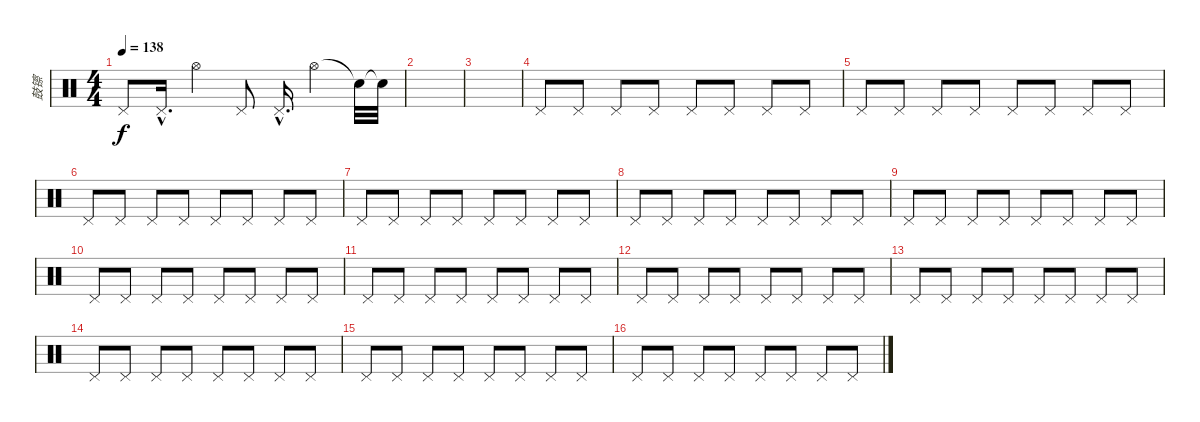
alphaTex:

\track ("鼓镲" "鼓镲") {instrument percussion}
\staff {score}
\articulation defaults
\ts (4 4)
\tempo 138
\clef neutral
\ks c "Pedal Hi-Hat (hit)".8{dy f} "Pedal Hi-Hat (hit)"{hac}.16{d} "Hi-Hat (open)".4 "Pedal Hi-Hat (hit)".8 "Pedal Hi-Hat (hit)"{hac}.16{d} "Hi-Hat (open)".4 "Snare (hit)"{t}.32 "Snare (hit)"{t}.32
|
|
|
"Pedal Hi-Hat (hit)".8 "Pedal Hi-Hat (hit)".8 "Pedal Hi-Hat (hit)".8 "Pedal Hi-Hat (hit)".8 "Pedal Hi-Hat (hit)".8 "Pedal Hi-Hat (hit)".8 "Pedal Hi-Hat (hit)".8 "Pedal Hi-Hat (hit)".8 |
"Pedal Hi-Hat (hit)".8 "Pedal Hi-Hat (hit)".8 "Pedal Hi-Hat (hit)".8 "Pedal Hi-Hat (hit)".8 "Pedal Hi-Hat (hit)".8 "Pedal Hi-Hat (hit)".8 "Pedal Hi-Hat (hit)".8 "Pedal Hi-Hat (hit)".8 |
"Pedal Hi-Hat (hit)".8 "Pedal Hi-Hat (hit)".8 "Pedal Hi-Hat (hit)".8 "Pedal Hi-Hat (hit)".8 "Pedal Hi-Hat (hit)".8 "Pedal Hi-Hat (hit)".8 "Pedal Hi-Hat (hit)".8 "Pedal Hi-Hat (hit)".8 |
"Pedal Hi-Hat (hit)".8 "Pedal Hi-Hat (hit)".8 "Pedal Hi-Hat (hit)".8 "Pedal Hi-Hat (hit)".8 "Pedal Hi-Hat (hit)".8 "Pedal Hi-Hat (hit)".8 "Pedal Hi-Hat (hit)".8 "Pedal Hi-Hat (hit)".8 |
"Pedal Hi-Hat (hit)".8 "Pedal Hi-Hat (hit)".8 "Pedal Hi-Hat (hit)".8 "Pedal Hi-Hat (hit)".8 "Pedal Hi-Hat (hit)".8 "Pedal Hi-Hat (hit)".8 "Pedal Hi-Hat (hit)".8 "Pedal Hi-Hat (hit)".8 |
"Pedal Hi-Hat (hit)".8 "Pedal Hi-Hat (hit)".8 "Pedal Hi-Hat (hit)".8 "Pedal Hi-Hat (hit)".8 "Pedal Hi-Hat (hit)".8 "Pedal Hi-Hat (hit)".8 "Pedal Hi-Hat (hit)".8 "Pedal Hi-Hat (hit)".8 |
"Pedal Hi-Hat (hit)".8 "Pedal Hi-Hat (hit)".8 "Pedal Hi-Hat (hit)".8 "Pedal Hi-Hat (hit)".8 "Pedal Hi-Hat (hit)".8 "Pedal Hi-Hat (hit)".8 "Pedal Hi-Hat (hit)".8 "Pedal Hi-Hat (hit)".8 |
"Pedal Hi-Hat (hit)".8 "Pedal Hi-Hat (hit)".8 "Pedal Hi-Hat (hit)".8 "Pedal Hi-Hat (hit)".8 "Pedal Hi-Hat (hit)".8 "Pedal Hi-Hat (hit)".8 "Pedal Hi-Hat (hit)".8 "Pedal Hi-Hat (hit)".8 |
"Pedal Hi-Hat (hit)".8 "Pedal Hi-Hat (hit)".8 "Pedal Hi-Hat (hit)".8 "Pedal Hi-Hat (hit)".8 "Pedal Hi-Hat (hit)".8 "Pedal Hi-Hat (hit)".8 "Pedal Hi-Hat (hit)".8 "Pedal Hi-Hat (hit)".8 |
"Pedal Hi-Hat (hit)".8 "Pedal Hi-Hat (hit)".8 "Pedal Hi-Hat (hit)".8 "Pedal Hi-Hat (hit)".8 "Pedal Hi-Hat (hit)".8 "Pedal Hi-Hat (hit)".8 "Pedal Hi-Hat (hit)".8 "Pedal Hi-Hat (hit)".8 |
"Pedal Hi-Hat (hit)".8 "Pedal Hi-Hat (hit)".8 "Pedal Hi-Hat (hit)".8 "Pedal Hi-Hat (hit)".8 "Pedal Hi-Hat (hit)".8 "Pedal Hi-Hat (hit)".8 "Pedal Hi-Hat (hit)".8 "Pedal Hi-Hat (hit)".8 |
"Pedal Hi-Hat (hit)".8 "Pedal Hi-Hat (hit)".8 "Pedal Hi-Hat (hit)".8 "Pedal Hi-Hat (hit)".8 "Pedal Hi-Hat (hit)".8 "Pedal Hi-Hat (hit)".8 "Pedal Hi-Hat (hit)".8 "Pedal Hi-Hat (hit)".8 |
"Pedal Hi-Hat (hit)".8 "Pedal Hi-Hat (hit)".8 "Pedal Hi-Hat (hit)".8 "Pedal Hi-Hat (hit)".8 "Pedal Hi-Hat (hit)".8 "Pedal Hi-Hat (hit)".8 "Pedal Hi-Hat (hit)".8 "Pedal Hi-Hat (hit)".8
